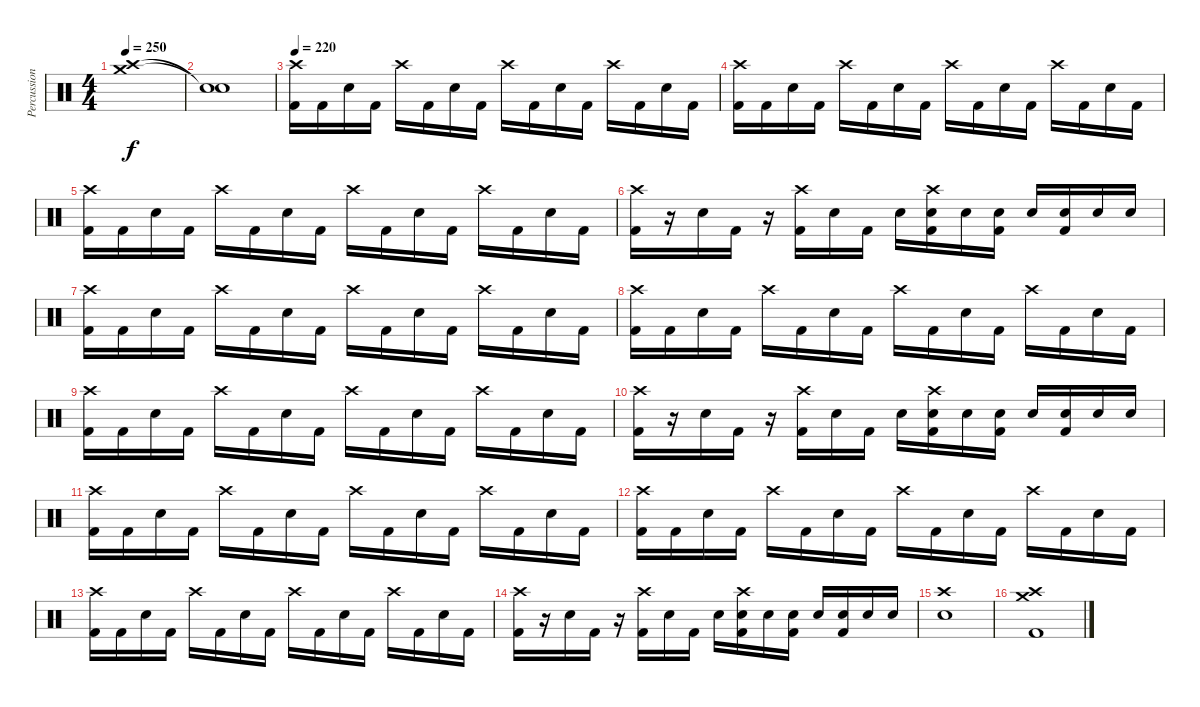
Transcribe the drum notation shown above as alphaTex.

\track ("Percussion" "Percussion") {instrument percussion}
\staff {score}
\articulation defaults
\ts (4 4)
\tempo 250
\tempo 180
\tempo 250
\clef neutral
\ks c
("Crash high (hit)" "Crash medium (hit)").1{dy f} |
("Snare (hit)"{t} "Snare (hit)"{t}).1 |
\tempo 220
("Crash high (hit)" "Kick (hit) 2").16 "Kick (hit) 2".16 "Electric Snare (hit)".16 "Kick (hit) 2".16 "Crash high (hit)".16 "Kick (hit) 2".16 "Electric Snare (hit)".16 "Kick (hit) 2".16 "Crash high (hit)".16 "Kick (hit) 2".16 "Electric Snare (hit)".16 "Kick (hit) 2".16 "Crash high (hit)".16 "Kick (hit) 2".16 "Electric Snare (hit)".16 "Kick (hit) 2".16 |
("Crash high (hit)" "Kick (hit) 2").16 "Kick (hit) 2".16 "Electric Snare (hit)".16 "Kick (hit) 2".16 "Crash high (hit)".16 "Kick (hit) 2".16 "Electric Snare (hit)".16 "Kick (hit) 2".16 "Crash high (hit)".16 "Kick (hit) 2".16 "Electric Snare (hit)".16 "Kick (hit) 2".16 "Crash high (hit)".16 "Kick (hit) 2".16 "Electric Snare (hit)".16 "Kick (hit) 2".16 |
("Crash high (hit)" "Kick (hit) 2").16 "Kick (hit) 2".16 "Electric Snare (hit)".16 "Kick (hit) 2".16 "Crash high (hit)".16 "Kick (hit) 2".16 "Electric Snare (hit)".16 "Kick (hit) 2".16 "Crash high (hit)".16 "Kick (hit) 2".16 "Electric Snare (hit)".16 "Kick (hit) 2".16 "Crash high (hit)".16 "Kick (hit) 2".16 "Electric Snare (hit)".16 "Kick (hit) 2".16 |
("Crash high (hit)" "Kick (hit) 2").16 r.16 "Electric Snare (hit)".16 "Kick (hit) 2".16 r.16 ("Crash high (hit)" "Kick (hit) 2").16 "Electric Snare (hit)".16 "Kick (hit) 2".16 "Electric Snare (hit)".16 ("Crash high (hit)" "Electric Snare (hit)" "Kick (hit) 2").16 "Electric Snare (hit)".16 ("Electric Snare (hit)" "Kick (hit) 2").16 "Electric Snare (hit)".16 ("Electric Snare (hit)" "Kick (hit) 2").16 "Electric Snare (hit)".16 "Electric Snare (hit)".16 |
("Crash high (hit)" "Kick (hit) 2").16 "Kick (hit) 2".16 "Electric Snare (hit)".16 "Kick (hit) 2".16 "Crash high (hit)".16 "Kick (hit) 2".16 "Electric Snare (hit)".16 "Kick (hit) 2".16 "Crash high (hit)".16 "Kick (hit) 2".16 "Electric Snare (hit)".16 "Kick (hit) 2".16 "Crash high (hit)".16 "Kick (hit) 2".16 "Electric Snare (hit)".16 "Kick (hit) 2".16 |
("Crash high (hit)" "Kick (hit) 2").16 "Kick (hit) 2".16 "Electric Snare (hit)".16 "Kick (hit) 2".16 "Crash high (hit)".16 "Kick (hit) 2".16 "Electric Snare (hit)".16 "Kick (hit) 2".16 "Crash high (hit)".16 "Kick (hit) 2".16 "Electric Snare (hit)".16 "Kick (hit) 2".16 "Crash high (hit)".16 "Kick (hit) 2".16 "Electric Snare (hit)".16 "Kick (hit) 2".16 |
("Crash high (hit)" "Kick (hit) 2").16 "Kick (hit) 2".16 "Electric Snare (hit)".16 "Kick (hit) 2".16 "Crash high (hit)".16 "Kick (hit) 2".16 "Electric Snare (hit)".16 "Kick (hit) 2".16 "Crash high (hit)".16 "Kick (hit) 2".16 "Electric Snare (hit)".16 "Kick (hit) 2".16 "Crash high (hit)".16 "Kick (hit) 2".16 "Electric Snare (hit)".16 "Kick (hit) 2".16 |
("Crash high (hit)" "Kick (hit) 2").16 r.16 "Electric Snare (hit)".16 "Kick (hit) 2".16 r.16 ("Crash high (hit)" "Kick (hit) 2").16 "Electric Snare (hit)".16 "Kick (hit) 2".16 "Electric Snare (hit)".16 ("Crash high (hit)" "Electric Snare (hit)" "Kick (hit) 2").16 "Electric Snare (hit)".16 ("Electric Snare (hit)" "Kick (hit) 2").16 "Electric Snare (hit)".16 ("Electric Snare (hit)" "Kick (hit) 2").16 "Electric Snare (hit)".16 "Electric Snare (hit)".16 |
("Crash high (hit)" "Kick (hit) 2").16 "Kick (hit) 2".16 "Electric Snare (hit)".16 "Kick (hit) 2".16 "Crash high (hit)".16 "Kick (hit) 2".16 "Electric Snare (hit)".16 "Kick (hit) 2".16 "Crash high (hit)".16 "Kick (hit) 2".16 "Electric Snare (hit)".16 "Kick (hit) 2".16 "Crash high (hit)".16 "Kick (hit) 2".16 "Electric Snare (hit)".16 "Kick (hit) 2".16 |
("Crash high (hit)" "Kick (hit) 2").16 "Kick (hit) 2".16 "Electric Snare (hit)".16 "Kick (hit) 2".16 "Crash high (hit)".16 "Kick (hit) 2".16 "Electric Snare (hit)".16 "Kick (hit) 2".16 "Crash high (hit)".16 "Kick (hit) 2".16 "Electric Snare (hit)".16 "Kick (hit) 2".16 "Crash high (hit)".16 "Kick (hit) 2".16 "Electric Snare (hit)".16 "Kick (hit) 2".16 |
("Crash high (hit)" "Kick (hit) 2").16 "Kick (hit) 2".16 "Electric Snare (hit)".16 "Kick (hit) 2".16 "Crash high (hit)".16 "Kick (hit) 2".16 "Electric Snare (hit)".16 "Kick (hit) 2".16 "Crash high (hit)".16 "Kick (hit) 2".16 "Electric Snare (hit)".16 "Kick (hit) 2".16 "Crash high (hit)".16 "Kick (hit) 2".16 "Electric Snare (hit)".16 "Kick (hit) 2".16 |
("Crash high (hit)" "Kick (hit) 2").16 r.16 "Electric Snare (hit)".16 "Kick (hit) 2".16 r.16 ("Crash high (hit)" "Kick (hit) 2").16 "Electric Snare (hit)".16 "Kick (hit) 2".16 "Electric Snare (hit)".16 ("Crash high (hit)" "Electric Snare (hit)" "Kick (hit) 2").16 "Electric Snare (hit)".16 ("Electric Snare (hit)" "Kick (hit) 2").16 "Electric Snare (hit)".16 ("Electric Snare (hit)" "Kick (hit) 2").16 "Electric Snare (hit)".16 "Electric Snare (hit)".16 |
("Crash high (hit)" "Electric Snare (hit)").1 |
("Crash high (hit)" "Crash medium (hit)" "Kick (hit) 2").1
